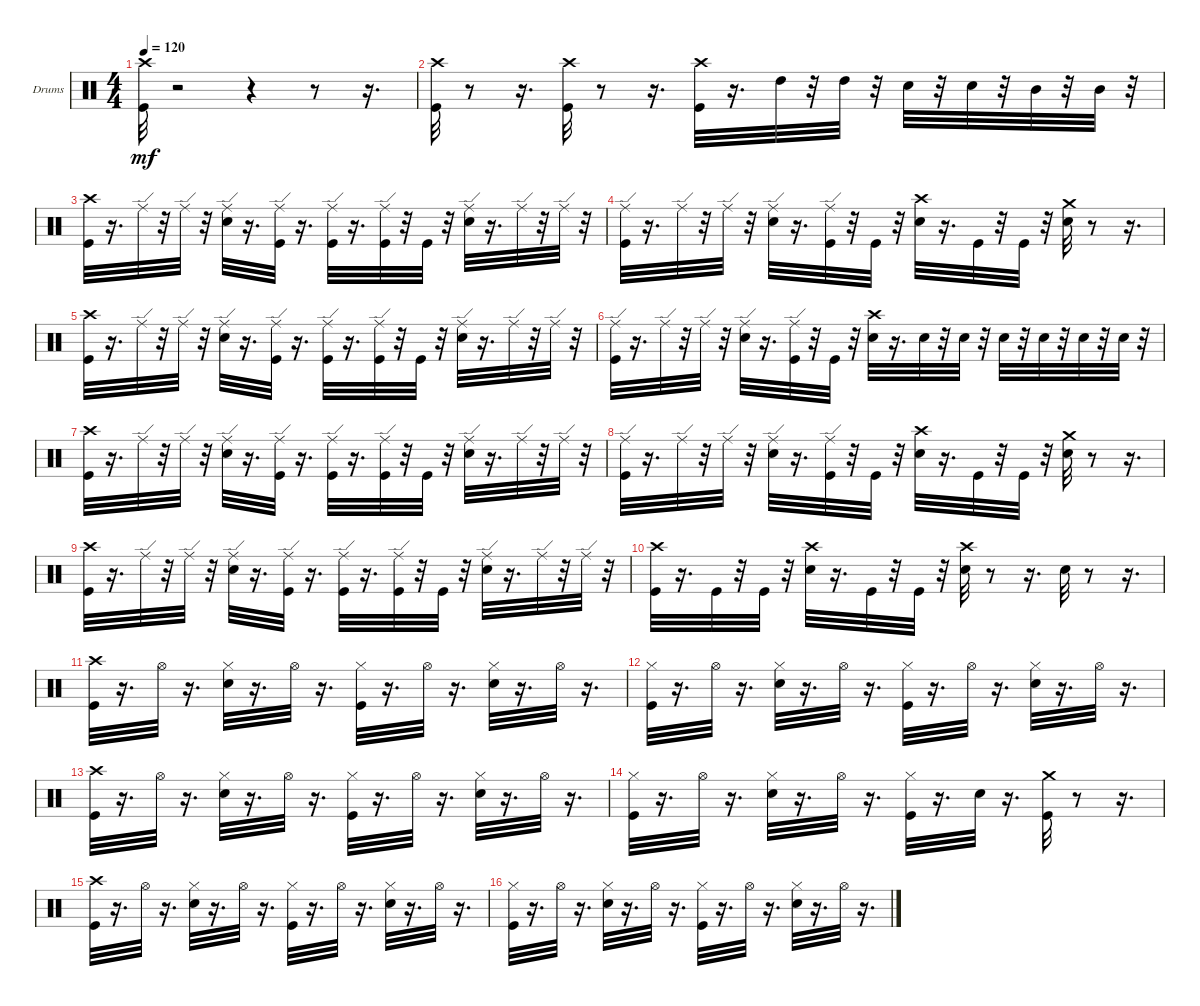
\bracketExtendMode groupsimilarinstruments
\firstSystemTrackNameOrientation horizontal
\otherSystemsTrackNameOrientation horizontal
\track ("" "Drums") {instrument percussion}
\staff {score}
\articulation defaults
\ts (4 4)
\tempo 120
\clef neutral
\ks c
("Crash high (hit)" "Kick (hit)").32{dy mf} r.2 r.4 r.8 r.16{d} |
("Crash high (hit)" "Kick (hit)").32 r.8 r.16{d} ("Crash high (hit)" "Kick (hit)").32 r.8 r.16{d} ("Crash high (hit)" "Kick (hit)").32 r.16{d} "High Tom (hit)".32 r.32 "High Tom (hit)".32 r.32 "Snare (hit) 2".32 r.32 "Snare (hit) 2".32 r.32 "Mid Tom (hit)".32 r.32 "Mid Tom (hit)".32 r.32 |
("Crash high (hit)" "Kick (hit)").32 r.16{d} "Ride (edge)".32 r.32 "Ride (edge)".32 r.32 ("Snare (hit) 2" "Ride (edge)").32 r.16{d} ("Kick (hit)" "Ride (edge)").32 r.16{d} ("Kick (hit)" "Ride (edge)").32 r.16{d} ("Kick (hit)" "Ride (edge)").32 r.32 "Kick (hit)".32 r.32 ("Snare (hit) 2" "Ride (edge)").32 r.16{d} "Ride (edge)".32 r.32 "Ride (edge)".32 r.32 |
("Ride (edge)" "Kick (hit)").32 r.16{d} "Ride (edge)".32 r.32 "Ride (edge)".32 r.32 ("Snare (hit) 2" "Ride (edge)").32 r.16{d} ("Kick (hit)" "Ride (edge)").32 r.32 "Kick (hit)".32 r.32 ("Snare (hit) 2" "Crash high (hit)").32 r.16{d} "Kick (hit)".32 r.32 "Kick (hit)".32 r.32 ("Crash medium (hit)" "Snare (hit) 2").32 r.8 r.16{d} |
("Crash high (hit)" "Kick (hit)").32 r.16{d} "Ride (edge)".32 r.32 "Ride (edge)".32 r.32 ("Snare (hit) 2" "Ride (edge)").32 r.16{d} ("Kick (hit)" "Ride (edge)").32 r.16{d} ("Kick (hit)" "Ride (edge)").32 r.16{d} ("Kick (hit)" "Ride (edge)").32 r.32 "Kick (hit)".32 r.32 ("Snare (hit) 2" "Ride (edge)").32 r.16{d} "Ride (edge)".32 r.32 "Ride (edge)".32 r.32 |
("Ride (edge)" "Kick (hit)").32 r.16{d} "Ride (edge)".32 r.32 "Ride (edge)".32 r.32 ("Snare (hit) 2" "Ride (edge)").32 r.16{d} ("Kick (hit)" "Ride (edge)").32 r.32 "Kick (hit)".32 r.32 ("Snare (hit) 2" "Crash high (hit)").32 r.16{d} "Snare (hit) 2".32 r.32 "Snare (hit) 2".32 r.32 "Snare (hit) 2".32 r.32 "Snare (hit) 2".32 r.32 "Snare (hit) 2".32 r.32 "Snare (hit) 2".32 r.32 |
("Crash high (hit)" "Kick (hit)").32 r.16{d} "Ride (edge)".32 r.32 "Ride (edge)".32 r.32 ("Snare (hit) 2" "Ride (edge)").32 r.16{d} ("Kick (hit)" "Ride (edge)").32 r.16{d} ("Kick (hit)" "Ride (edge)").32 r.16{d} ("Kick (hit)" "Ride (edge)").32 r.32 "Kick (hit)".32 r.32 ("Snare (hit) 2" "Ride (edge)").32 r.16{d} "Ride (edge)".32 r.32 "Ride (edge)".32 r.32 |
("Ride (edge)" "Kick (hit)").32 r.16{d} "Ride (edge)".32 r.32 "Ride (edge)".32 r.32 ("Snare (hit) 2" "Ride (edge)").32 r.16{d} ("Kick (hit)" "Ride (edge)").32 r.32 "Kick (hit)".32 r.32 ("Snare (hit) 2" "Crash high (hit)").32 r.16{d} "Kick (hit)".32 r.32 "Kick (hit)".32 r.32 ("Crash medium (hit)" "Snare (hit) 2").32 r.8 r.16{d} |
("Crash high (hit)" "Kick (hit)").32 r.16{d} "Ride (edge)".32 r.32 "Ride (edge)".32 r.32 ("Snare (hit) 2" "Ride (edge)").32 r.16{d} ("Kick (hit)" "Ride (edge)").32 r.16{d} ("Kick (hit)" "Ride (edge)").32 r.16{d} ("Kick (hit)" "Ride (edge)").32 r.32 "Kick (hit)".32 r.32 ("Snare (hit) 2" "Ride (edge)").32 r.16{d} "Ride (edge)".32 r.32 "Ride (edge)".32 r.32 |
("Crash high (hit)" "Kick (hit)").32 r.16{d} "Kick (hit)".32 r.32 "Kick (hit)".32 r.32 ("Crash high (hit)" "Snare (hit) 2").32 r.16{d} "Kick (hit)".32 r.32 "Kick (hit)".32 r.32 ("Snare (hit) 2" "Crash high (hit)").32 r.8 r.16{d} "Snare (hit) 2".32 r.8 r.16{d} |
("Crash high (hit)" "Kick (hit)").32 r.16{d} "Hi-Hat (open)".32 r.16{d} ("Snare (hit) 2" "Hi-Hat (closed)").32 r.16{d} "Hi-Hat (open)".32 r.16{d} ("Kick (hit)" "Hi-Hat (closed)").32 r.16{d} "Hi-Hat (open)".32 r.16{d} ("Snare (hit) 2" "Hi-Hat (closed)").32 r.16{d} "Hi-Hat (open)".32 r.16{d} |
("Hi-Hat (closed)" "Kick (hit)").32 r.16{d} "Hi-Hat (open)".32 r.16{d} ("Snare (hit) 2" "Hi-Hat (closed)").32 r.16{d} "Hi-Hat (open)".32 r.16{d} ("Kick (hit)" "Hi-Hat (closed)").32 r.16{d} "Hi-Hat (open)".32 r.16{d} ("Snare (hit) 2" "Hi-Hat (closed)").32 r.16{d} "Hi-Hat (open)".32 r.16{d} |
("Crash high (hit)" "Kick (hit)").32 r.16{d} "Hi-Hat (open)".32 r.16{d} ("Snare (hit) 2" "Hi-Hat (closed)").32 r.16{d} "Hi-Hat (open)".32 r.16{d} ("Kick (hit)" "Hi-Hat (closed)").32 r.16{d} "Hi-Hat (open)".32 r.16{d} ("Snare (hit) 2" "Hi-Hat (closed)").32 r.16{d} "Hi-Hat (open)".32 r.16{d} |
("Hi-Hat (closed)" "Kick (hit)").32 r.16{d} "Hi-Hat (open)".32 r.16{d} ("Snare (hit) 2" "Hi-Hat (closed)").32 r.16{d} "Hi-Hat (open)".32 r.16{d} ("Kick (hit)" "Hi-Hat (closed)").32 r.16{d} "Snare (hit) 2".32 r.16{d} ("Crash medium (hit)" "Kick (hit)").32 r.8 r.16{d} |
("Crash high (hit)" "Kick (hit)").32 r.16{d} "Hi-Hat (open)".32 r.16{d} ("Snare (hit) 2" "Hi-Hat (closed)").32 r.16{d} "Hi-Hat (open)".32 r.16{d} ("Kick (hit)" "Hi-Hat (closed)").32 r.16{d} "Hi-Hat (open)".32 r.16{d} ("Snare (hit) 2" "Hi-Hat (closed)").32 r.16{d} "Hi-Hat (open)".32 r.16{d} |
("Hi-Hat (closed)" "Kick (hit)").32 r.16{d} "Hi-Hat (open)".32 r.16{d} ("Snare (hit) 2" "Hi-Hat (closed)").32 r.16{d} "Hi-Hat (open)".32 r.16{d} ("Kick (hit)" "Hi-Hat (closed)").32 r.16{d} "Hi-Hat (open)".32 r.16{d} ("Snare (hit) 2" "Hi-Hat (closed)").32 r.16{d} "Hi-Hat (open)".32 r.16{d}
